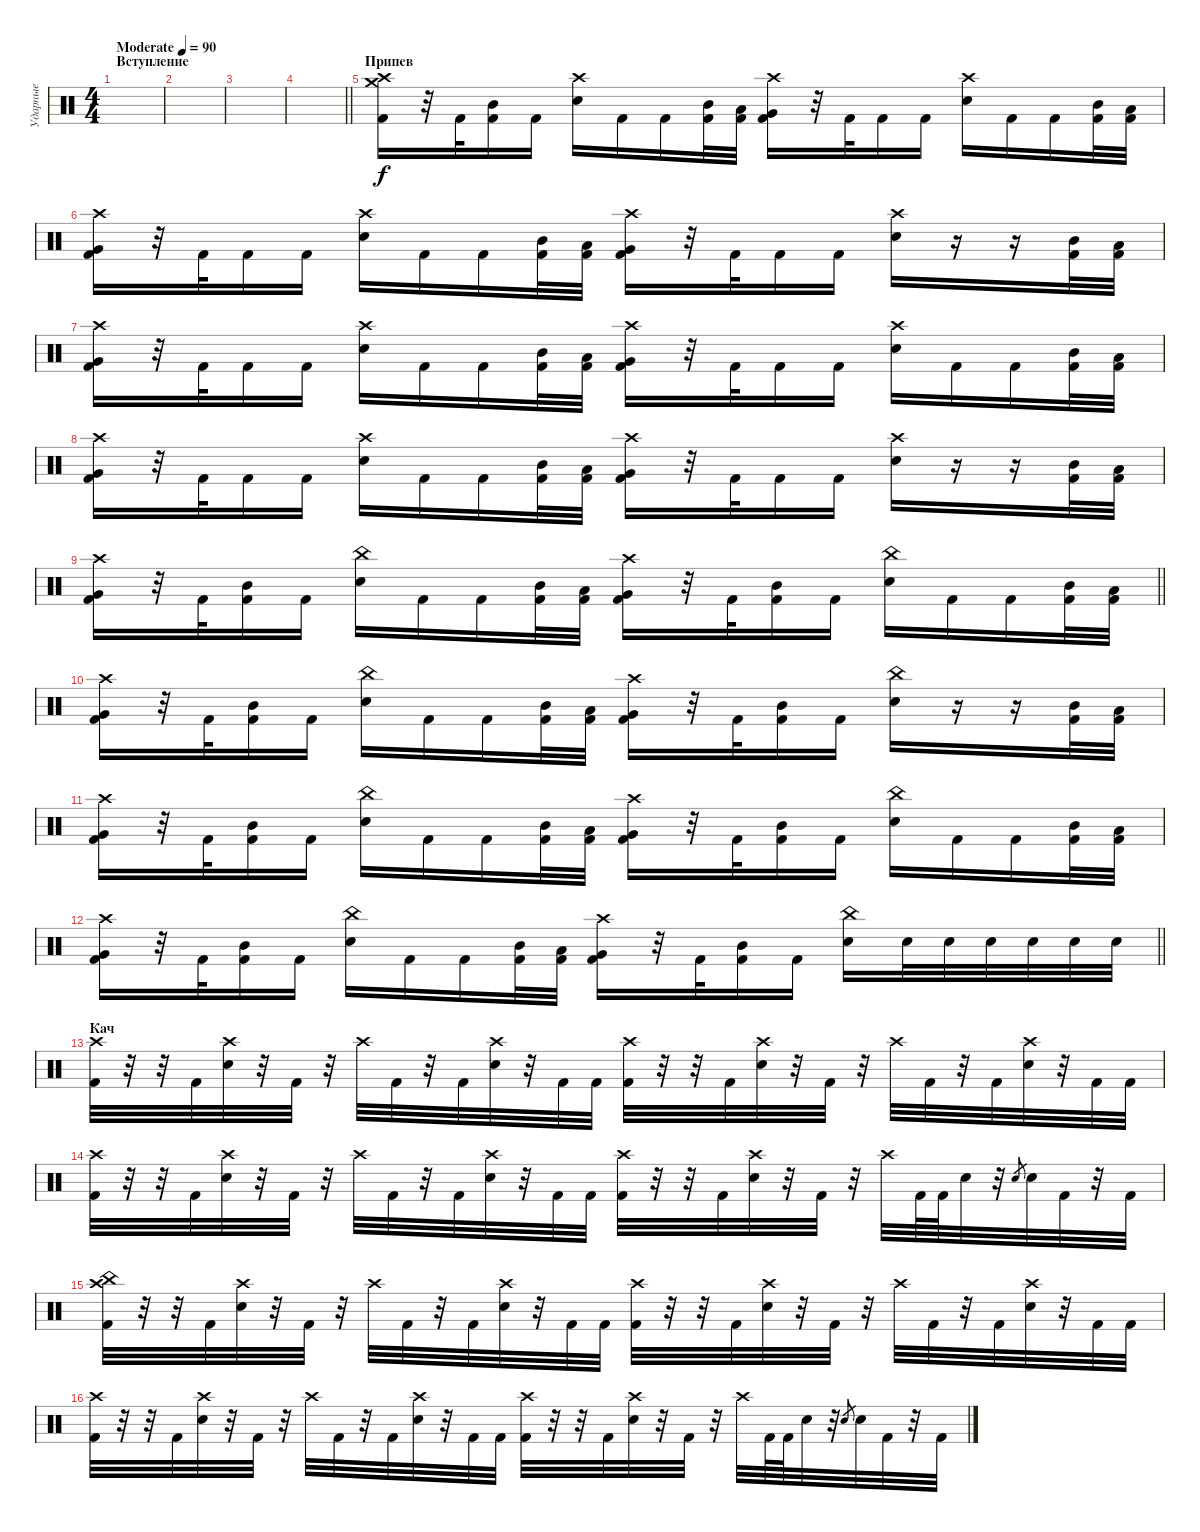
\track ("Ударные" "Ударные") {instrument percussion}
\staff {score}
\articulation defaults
\ts (4 4)
\section ("" "Вступление")
\tempo (90 "Moderate")
\clef neutral
\ks c
|
|
|
\barLineRight lightlight
|
\section ("" "Припев")
("Crash medium (hit)" "Crash high (hit)" "Kick (hit) 2").16 r.32 "Kick (hit) 2".32 ("Mid Tom (hit)" "Kick (hit) 2").16 "Kick (hit) 2".16 ("Crash high (hit)" "Electric Snare (hit)").16 "Kick (hit) 2".16 "Kick (hit) 2".16 ("Mid Tom (hit)" "Kick (hit) 2").32 ("Low Tom (hit)" "Kick (hit) 2").32 ("Crash high (hit)" "Very Low Tom (hit)" "Kick (hit) 2").16 r.32 "Kick (hit) 2".32 "Kick (hit) 2".16 "Kick (hit) 2".16 ("Crash high (hit)" "Electric Snare (hit)").16 "Kick (hit) 2".16 "Kick (hit) 2".16 ("Mid Tom (hit)" "Kick (hit) 2").32 ("Low Tom (hit)" "Kick (hit) 2").32 |
("Crash high (hit)" "Very Low Tom (hit)" "Kick (hit) 2").16 r.32 "Kick (hit) 2".32 "Kick (hit) 2".16 "Kick (hit) 2".16 ("Crash high (hit)" "Electric Snare (hit)").16 "Kick (hit) 2".16 "Kick (hit) 2".16 ("Mid Tom (hit)" "Kick (hit) 2").32 ("Low Tom (hit)" "Kick (hit) 2").32 ("Crash high (hit)" "Very Low Tom (hit)" "Kick (hit) 2").16 r.32 "Kick (hit) 2".32 "Kick (hit) 2".16 "Kick (hit) 2".16 ("Crash high (hit)" "Electric Snare (hit)").16 r.16 r.16 ("Mid Tom (hit)" "Kick (hit) 2").32 ("Low Tom (hit)" "Kick (hit) 2").32 |
("Crash high (hit)" "Very Low Tom (hit)" "Kick (hit) 2").16 r.32 "Kick (hit) 2".32 "Kick (hit) 2".16 "Kick (hit) 2".16 ("Crash high (hit)" "Electric Snare (hit)").16 "Kick (hit) 2".16 "Kick (hit) 2".16 ("Mid Tom (hit)" "Kick (hit) 2").32 ("Low Tom (hit)" "Kick (hit) 2").32 ("Crash high (hit)" "Very Low Tom (hit)" "Kick (hit) 2").16 r.32 "Kick (hit) 2".32 "Kick (hit) 2".16 "Kick (hit) 2".16 ("Crash high (hit)" "Electric Snare (hit)").16 "Kick (hit) 2".16 "Kick (hit) 2".16 ("Mid Tom (hit)" "Kick (hit) 2").32 ("Low Tom (hit)" "Kick (hit) 2").32 |
("Crash high (hit)" "Very Low Tom (hit)" "Kick (hit) 2").16 r.32 "Kick (hit) 2".32 "Kick (hit) 2".16 "Kick (hit) 2".16 ("Crash high (hit)" "Electric Snare (hit)").16 "Kick (hit) 2".16 "Kick (hit) 2".16 ("Mid Tom (hit)" "Kick (hit) 2").32 ("Low Tom (hit)" "Kick (hit) 2").32 ("Crash high (hit)" "Very Low Tom (hit)" "Kick (hit) 2").16 r.32 "Kick (hit) 2".32 "Kick (hit) 2".16 "Kick (hit) 2".16 ("Crash high (hit)" "Electric Snare (hit)").16 r.16 r.16 ("Mid Tom (hit)" "Kick (hit) 2").32 ("Low Tom (hit)" "Kick (hit) 2").32 |
\barLineRight lightlight
("Crash high (hit)" "Very Low Tom (hit)" "Kick (hit) 2").16 r.32 "Kick (hit) 2".32 ("Mid Tom (hit)" "Kick (hit) 2").16 "Kick (hit) 2".16 ("China (hit)" "Electric Snare (hit)").16 "Kick (hit) 2".16 "Kick (hit) 2".16 ("Mid Tom (hit)" "Kick (hit) 2").32 ("Low Tom (hit)" "Kick (hit) 2").32 ("Crash high (hit)" "Very Low Tom (hit)" "Kick (hit) 2").16 r.32 "Kick (hit) 2".32 ("Mid Tom (hit)" "Kick (hit) 2").16 "Kick (hit) 2".16 ("China (hit)" "Electric Snare (hit)").16 "Kick (hit) 2".16 "Kick (hit) 2".16 ("Mid Tom (hit)" "Kick (hit) 2").32 ("Low Tom (hit)" "Kick (hit) 2").32 |
("Crash high (hit)" "Very Low Tom (hit)" "Kick (hit) 2").16 r.32 "Kick (hit) 2".32 ("Mid Tom (hit)" "Kick (hit) 2").16 "Kick (hit) 2".16 ("China (hit)" "Electric Snare (hit)").16 "Kick (hit) 2".16 "Kick (hit) 2".16 ("Mid Tom (hit)" "Kick (hit) 2").32 ("Low Tom (hit)" "Kick (hit) 2").32 ("Crash high (hit)" "Very Low Tom (hit)" "Kick (hit) 2").16 r.32 "Kick (hit) 2".32 ("Mid Tom (hit)" "Kick (hit) 2").16 "Kick (hit) 2".16 ("China (hit)" "Electric Snare (hit)").16 r.16 r.16 ("Mid Tom (hit)" "Kick (hit) 2").32 ("Low Tom (hit)" "Kick (hit) 2").32 |
("Crash high (hit)" "Very Low Tom (hit)" "Kick (hit) 2").16 r.32 "Kick (hit) 2".32 ("Mid Tom (hit)" "Kick (hit) 2").16 "Kick (hit) 2".16 ("China (hit)" "Electric Snare (hit)").16 "Kick (hit) 2".16 "Kick (hit) 2".16 ("Mid Tom (hit)" "Kick (hit) 2").32 ("Low Tom (hit)" "Kick (hit) 2").32 ("Crash high (hit)" "Very Low Tom (hit)" "Kick (hit) 2").16 r.32 "Kick (hit) 2".32 ("Mid Tom (hit)" "Kick (hit) 2").16 "Kick (hit) 2".16 ("China (hit)" "Electric Snare (hit)").16 "Kick (hit) 2".16 "Kick (hit) 2".16 ("Mid Tom (hit)" "Kick (hit) 2").32 ("Low Tom (hit)" "Kick (hit) 2").32 |
\barLineRight lightlight
("Crash high (hit)" "Very Low Tom (hit)" "Kick (hit) 2").16 r.32 "Kick (hit) 2".32 ("Mid Tom (hit)" "Kick (hit) 2").16 "Kick (hit) 2".16 ("China (hit)" "Electric Snare (hit)").16 "Kick (hit) 2".16 "Kick (hit) 2".16 ("Mid Tom (hit)" "Kick (hit) 2").32 ("Low Tom (hit)" "Kick (hit) 2").32 ("Crash high (hit)" "Very Low Tom (hit)" "Kick (hit) 2").16 r.32 "Kick (hit) 2".32 ("Mid Tom (hit)" "Kick (hit) 2").16 "Kick (hit) 2".16 ("China (hit)" "Electric Snare (hit)").16 "Electric Snare (hit)".32 "Electric Snare (hit)".32 "Electric Snare (hit)".32 "Electric Snare (hit)".32 "Electric Snare (hit)".32 "Electric Snare (hit)".32 |
\section ("" "Кач")
("Crash high (hit)" "Kick (hit) 2").32 r.32 r.32 "Kick (hit) 2".32 ("Crash high (hit)" "Electric Snare (hit)").32 r.32 "Kick (hit) 2".32 r.32 "Crash high (hit)".32 "Kick (hit) 2".32 r.32 "Kick (hit) 2".32 ("Crash high (hit)" "Electric Snare (hit)").32 r.32 "Kick (hit) 2".32 "Kick (hit) 2".32 ("Crash high (hit)" "Kick (hit) 2").32 r.32 r.32 "Kick (hit) 2".32 ("Crash high (hit)" "Electric Snare (hit)").32 r.32 "Kick (hit) 2".32 r.32 "Crash high (hit)".32 "Kick (hit) 2".32 r.32 "Kick (hit) 2".32 ("Crash high (hit)" "Electric Snare (hit)").32 r.32 "Kick (hit) 2".32 "Kick (hit) 2".32 |
("Crash high (hit)" "Kick (hit) 2").32 r.32 r.32 "Kick (hit) 2".32 ("Crash high (hit)" "Electric Snare (hit)").32 r.32 "Kick (hit) 2".32 r.32 "Crash high (hit)".32 "Kick (hit) 2".32 r.32 "Kick (hit) 2".32 ("Crash high (hit)" "Electric Snare (hit)").32 r.32 "Kick (hit) 2".32 "Kick (hit) 2".32 ("Crash high (hit)" "Kick (hit) 2").32 r.32 r.32 "Kick (hit) 2".32 ("Crash high (hit)" "Electric Snare (hit)").32 r.32 "Kick (hit) 2".32 r.32 "Crash high (hit)".32 "Kick (hit) 2".64 "Kick (hit) 2".64 "Electric Snare (hit)".32 r.32 "Electric Snare (hit)".8{gr} "Electric Snare (hit)".32 "Kick (hit) 2".32 r.32 "Kick (hit) 2".32 |
("China (hit)" "Crash high (hit)" "Kick (hit) 2").32 r.32 r.32 "Kick (hit) 2".32 ("Crash high (hit)" "Electric Snare (hit)").32 r.32 "Kick (hit) 2".32 r.32 "Crash high (hit)".32 "Kick (hit) 2".32 r.32 "Kick (hit) 2".32 ("Crash high (hit)" "Electric Snare (hit)").32 r.32 "Kick (hit) 2".32 "Kick (hit) 2".32 ("Crash high (hit)" "Kick (hit) 2").32 r.32 r.32 "Kick (hit) 2".32 ("Crash high (hit)" "Electric Snare (hit)").32 r.32 "Kick (hit) 2".32 r.32 "Crash high (hit)".32 "Kick (hit) 2".32 r.32 "Kick (hit) 2".32 ("Crash high (hit)" "Electric Snare (hit)").32 r.32 "Kick (hit) 2".32 "Kick (hit) 2".32 |
("Crash high (hit)" "Kick (hit) 2").32 r.32 r.32 "Kick (hit) 2".32 ("Crash high (hit)" "Electric Snare (hit)").32 r.32 "Kick (hit) 2".32 r.32 "Crash high (hit)".32 "Kick (hit) 2".32 r.32 "Kick (hit) 2".32 ("Crash high (hit)" "Electric Snare (hit)").32 r.32 "Kick (hit) 2".32 "Kick (hit) 2".32 ("Crash high (hit)" "Kick (hit) 2").32 r.32 r.32 "Kick (hit) 2".32 ("Crash high (hit)" "Electric Snare (hit)").32 r.32 "Kick (hit) 2".32 r.32 "Crash high (hit)".32 "Kick (hit) 2".64 "Kick (hit) 2".64 "Electric Snare (hit)".32 r.32 "Electric Snare (hit)".8{gr} "Electric Snare (hit)".32 "Kick (hit) 2".32 r.32 "Kick (hit) 2".32
